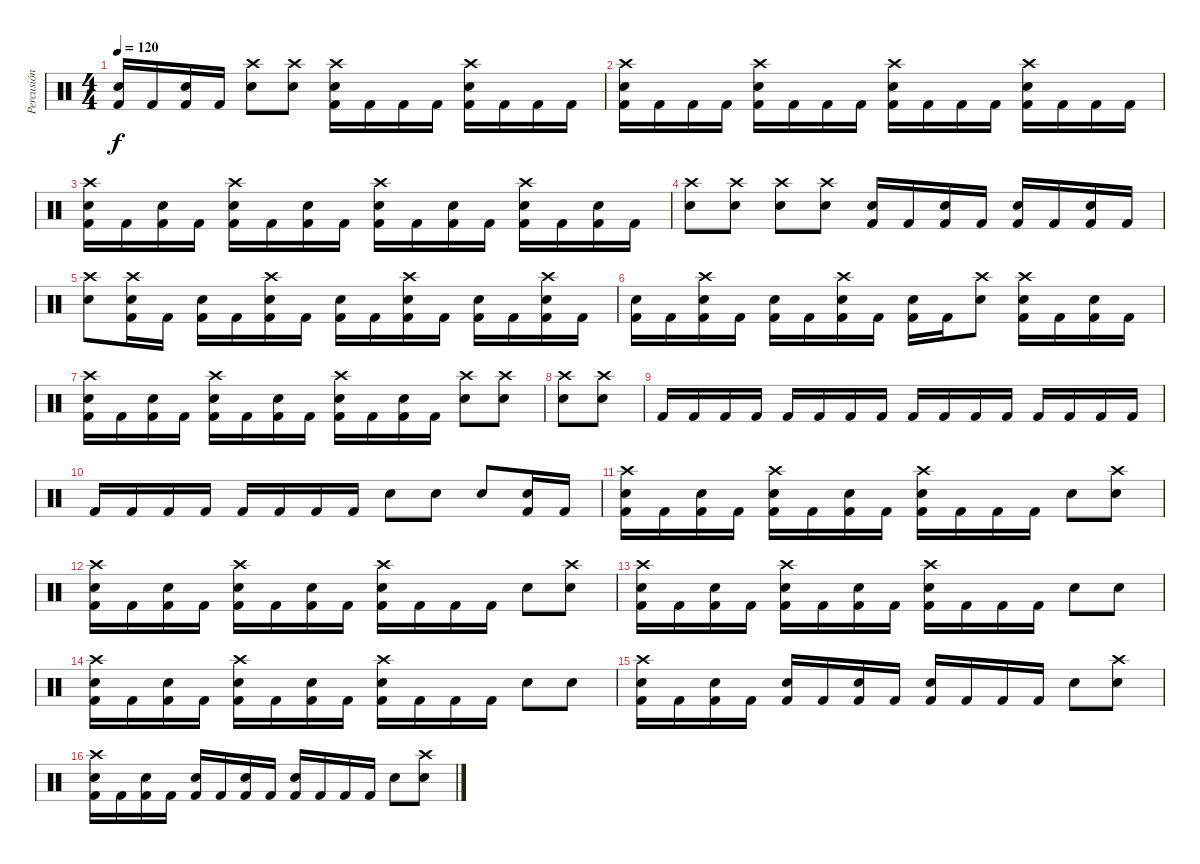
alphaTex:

\track ("Percusión" "Percusión") {instrument percussion}
\staff {score}
\articulation defaults
\ts (4 4)
\tempo 120
\clef neutral
\ks c
("Kick (hit) 2" "Electric Snare (hit)").16{dy f} "Kick (hit) 2".16 ("Kick (hit) 2" "Electric Snare (hit)").16 "Kick (hit) 2".16 ("Crash high (hit)" "Electric Snare (hit)").8 ("Crash high (hit)" "Electric Snare (hit)").8 ("Crash high (hit)" "Kick (hit) 2" "Electric Snare (hit)").16 "Kick (hit) 2".16 "Kick (hit) 2".16 "Kick (hit) 2".16 ("Crash high (hit)" "Kick (hit) 2" "Electric Snare (hit)").16 "Kick (hit) 2".16 "Kick (hit) 2".16 "Kick (hit) 2".16 |
("Crash high (hit)" "Kick (hit) 2" "Electric Snare (hit)").16 "Kick (hit) 2".16 "Kick (hit) 2".16 "Kick (hit) 2".16 ("Crash high (hit)" "Kick (hit) 2" "Electric Snare (hit)").16 "Kick (hit) 2".16 "Kick (hit) 2".16 "Kick (hit) 2".16 ("Crash high (hit)" "Kick (hit) 2" "Electric Snare (hit)").16 "Kick (hit) 2".16 "Kick (hit) 2".16 "Kick (hit) 2".16 ("Crash high (hit)" "Kick (hit) 2" "Electric Snare (hit)").16 "Kick (hit) 2".16 "Kick (hit) 2".16 "Kick (hit) 2".16 |
("Crash high (hit)" "Kick (hit) 2" "Electric Snare (hit)").16 "Kick (hit) 2".16 ("Kick (hit) 2" "Electric Snare (hit)").16 "Kick (hit) 2".16 ("Crash high (hit)" "Kick (hit) 2" "Electric Snare (hit)").16 "Kick (hit) 2".16 ("Kick (hit) 2" "Electric Snare (hit)").16 "Kick (hit) 2".16 ("Crash high (hit)" "Kick (hit) 2" "Electric Snare (hit)").16 "Kick (hit) 2".16 ("Kick (hit) 2" "Electric Snare (hit)").16 "Kick (hit) 2".16 ("Crash high (hit)" "Kick (hit) 2" "Electric Snare (hit)").16 "Kick (hit) 2".16 ("Kick (hit) 2" "Electric Snare (hit)").16 "Kick (hit) 2".16 |
("Crash high (hit)" "Electric Snare (hit)").8 ("Crash high (hit)" "Electric Snare (hit)").8 ("Crash high (hit)" "Electric Snare (hit)").8 ("Crash high (hit)" "Electric Snare (hit)").8 ("Kick (hit) 2" "Electric Snare (hit)").16 "Kick (hit) 2".16 ("Kick (hit) 2" "Electric Snare (hit)").16 "Kick (hit) 2".16 ("Kick (hit) 2" "Electric Snare (hit)").16 "Kick (hit) 2".16 ("Kick (hit) 2" "Electric Snare (hit)").16 "Kick (hit) 2".16 |
("Crash high (hit)" "Electric Snare (hit)").8 ("Crash high (hit)" "Kick (hit) 2" "Electric Snare (hit)").16 "Kick (hit) 2".16 ("Kick (hit) 2" "Electric Snare (hit)").16 "Kick (hit) 2".16 ("Crash high (hit)" "Kick (hit) 2" "Electric Snare (hit)").16 "Kick (hit) 2".16 ("Kick (hit) 2" "Electric Snare (hit)").16 "Kick (hit) 2".16 ("Crash high (hit)" "Kick (hit) 2" "Electric Snare (hit)").16 "Kick (hit) 2".16 ("Kick (hit) 2" "Electric Snare (hit)").16 "Kick (hit) 2".16 ("Crash high (hit)" "Kick (hit) 2" "Electric Snare (hit)").16 "Kick (hit) 2".16 |
("Kick (hit) 2" "Electric Snare (hit)").16 "Kick (hit) 2".16 ("Crash high (hit)" "Kick (hit) 2" "Electric Snare (hit)").16 "Kick (hit) 2".16 ("Kick (hit) 2" "Electric Snare (hit)").16 "Kick (hit) 2".16 ("Crash high (hit)" "Kick (hit) 2" "Electric Snare (hit)").16 "Kick (hit) 2".16 ("Kick (hit) 2" "Electric Snare (hit)").16 "Kick (hit) 2".16 ("Crash high (hit)" "Electric Snare (hit)").8 ("Crash high (hit)" "Kick (hit) 2" "Electric Snare (hit)").16 "Kick (hit) 2".16 ("Kick (hit) 2" "Electric Snare (hit)").16 "Kick (hit) 2".16 |
("Crash high (hit)" "Kick (hit) 2" "Electric Snare (hit)").16 "Kick (hit) 2".16 ("Kick (hit) 2" "Electric Snare (hit)").16 "Kick (hit) 2".16 ("Crash high (hit)" "Kick (hit) 2" "Electric Snare (hit)").16 "Kick (hit) 2".16 ("Kick (hit) 2" "Electric Snare (hit)").16 "Kick (hit) 2".16 ("Crash high (hit)" "Kick (hit) 2" "Electric Snare (hit)").16 "Kick (hit) 2".16 ("Kick (hit) 2" "Electric Snare (hit)").16 "Kick (hit) 2".16 ("Crash high (hit)" "Electric Snare (hit)").8 ("Crash high (hit)" "Electric Snare (hit)").8 |
("Crash high (hit)" "Electric Snare (hit)").8 ("Crash high (hit)" "Electric Snare (hit)").8 |
"Kick (hit) 2".16 "Kick (hit) 2".16 "Kick (hit) 2".16 "Kick (hit) 2".16 "Kick (hit) 2".16 "Kick (hit) 2".16 "Kick (hit) 2".16 "Kick (hit) 2".16 "Kick (hit) 2".16 "Kick (hit) 2".16 "Kick (hit) 2".16 "Kick (hit) 2".16 "Kick (hit) 2".16 "Kick (hit) 2".16 "Kick (hit) 2".16 "Kick (hit) 2".16 |
"Kick (hit) 2".16 "Kick (hit) 2".16 "Kick (hit) 2".16 "Kick (hit) 2".16 "Kick (hit) 2".16 "Kick (hit) 2".16 "Kick (hit) 2".16 "Kick (hit) 2".16 "Electric Snare (hit)".8 "Electric Snare (hit)".8 "Electric Snare (hit)".8 ("Kick (hit) 2" "Electric Snare (hit)").16 "Kick (hit) 2".16 |
("Crash high (hit)" "Kick (hit) 2" "Electric Snare (hit)").16 "Kick (hit) 2".16 ("Kick (hit) 2" "Electric Snare (hit)").16 "Kick (hit) 2".16 ("Crash high (hit)" "Kick (hit) 2" "Electric Snare (hit)").16 "Kick (hit) 2".16 ("Kick (hit) 2" "Electric Snare (hit)").16 "Kick (hit) 2".16 ("Crash high (hit)" "Kick (hit) 2" "Electric Snare (hit)").16 "Kick (hit) 2".16 "Kick (hit) 2".16 "Kick (hit) 2".16 "Electric Snare (hit)".8 ("Crash high (hit)" "Electric Snare (hit)").8 |
("Crash high (hit)" "Kick (hit) 2" "Electric Snare (hit)").16 "Kick (hit) 2".16 ("Kick (hit) 2" "Electric Snare (hit)").16 "Kick (hit) 2".16 ("Crash high (hit)" "Kick (hit) 2" "Electric Snare (hit)").16 "Kick (hit) 2".16 ("Kick (hit) 2" "Electric Snare (hit)").16 "Kick (hit) 2".16 ("Crash high (hit)" "Kick (hit) 2" "Electric Snare (hit)").16 "Kick (hit) 2".16 "Kick (hit) 2".16 "Kick (hit) 2".16 "Electric Snare (hit)".8 ("Crash high (hit)" "Electric Snare (hit)").8 |
("Crash high (hit)" "Kick (hit) 2" "Electric Snare (hit)").16 "Kick (hit) 2".16 ("Kick (hit) 2" "Electric Snare (hit)").16 "Kick (hit) 2".16 ("Crash high (hit)" "Kick (hit) 2" "Electric Snare (hit)").16 "Kick (hit) 2".16 ("Kick (hit) 2" "Electric Snare (hit)").16 "Kick (hit) 2".16 ("Crash high (hit)" "Kick (hit) 2" "Electric Snare (hit)").16 "Kick (hit) 2".16 "Kick (hit) 2".16 "Kick (hit) 2".16 "Electric Snare (hit)".8 "Electric Snare (hit)".8 |
("Crash high (hit)" "Kick (hit) 2" "Electric Snare (hit)").16 "Kick (hit) 2".16 ("Kick (hit) 2" "Electric Snare (hit)").16 "Kick (hit) 2".16 ("Crash high (hit)" "Kick (hit) 2" "Electric Snare (hit)").16 "Kick (hit) 2".16 ("Kick (hit) 2" "Electric Snare (hit)").16 "Kick (hit) 2".16 ("Crash high (hit)" "Kick (hit) 2" "Electric Snare (hit)").16 "Kick (hit) 2".16 "Kick (hit) 2".16 "Kick (hit) 2".16 "Electric Snare (hit)".8 "Electric Snare (hit)".8 |
("Crash high (hit)" "Kick (hit) 2" "Electric Snare (hit)").16 "Kick (hit) 2".16 ("Kick (hit) 2" "Electric Snare (hit)").16 "Kick (hit) 2".16 ("Kick (hit) 2" "Electric Snare (hit)").16 "Kick (hit) 2".16 ("Kick (hit) 2" "Electric Snare (hit)").16 "Kick (hit) 2".16 ("Kick (hit) 2" "Electric Snare (hit)").16 "Kick (hit) 2".16 "Kick (hit) 2".16 "Kick (hit) 2".16 "Electric Snare (hit)".8 ("Crash high (hit)" "Electric Snare (hit)").8 |
("Crash high (hit)" "Kick (hit) 2" "Electric Snare (hit)").16 "Kick (hit) 2".16 ("Kick (hit) 2" "Electric Snare (hit)").16 "Kick (hit) 2".16 ("Kick (hit) 2" "Electric Snare (hit)").16 "Kick (hit) 2".16 ("Kick (hit) 2" "Electric Snare (hit)").16 "Kick (hit) 2".16 ("Kick (hit) 2" "Electric Snare (hit)").16 "Kick (hit) 2".16 "Kick (hit) 2".16 "Kick (hit) 2".16 "Electric Snare (hit)".8 ("Crash high (hit)" "Electric Snare (hit)").8
